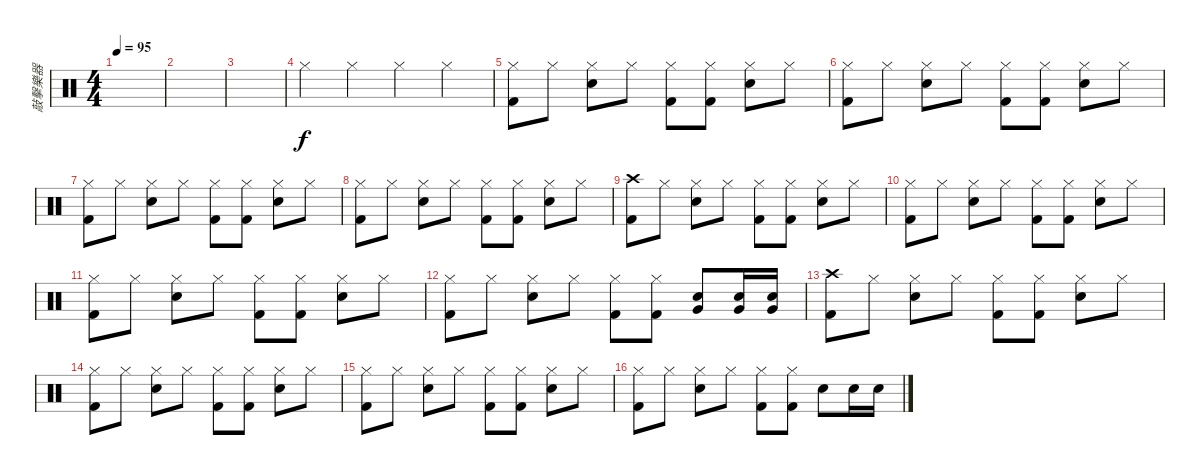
\track ("敲擊樂器" "敲擊樂器") {instrument percussion}
\staff {score}
\articulation defaults
\ts (4 4)
\tempo 95
\clef neutral
\ks c
|
|
|
"Hi-Hat (closed)".4 "Hi-Hat (closed)".4 "Hi-Hat (closed)".4 "Hi-Hat (closed)".4 |
("Hi-Hat (closed)" "Kick (hit) 2").8 "Hi-Hat (closed)".8 ("Hi-Hat (closed)" "Snare (hit) 2").8 "Hi-Hat (closed)".8 ("Hi-Hat (closed)" "Kick (hit) 2").8 ("Hi-Hat (closed)" "Kick (hit) 2").8 ("Hi-Hat (closed)" "Snare (hit) 2").8 "Hi-Hat (closed)".8 |
("Hi-Hat (closed)" "Kick (hit) 2").8 "Hi-Hat (closed)".8 ("Hi-Hat (closed)" "Snare (hit) 2").8 "Hi-Hat (closed)".8 ("Hi-Hat (closed)" "Kick (hit) 2").8 ("Hi-Hat (closed)" "Kick (hit) 2").8 ("Hi-Hat (closed)" "Snare (hit) 2").8 "Hi-Hat (closed)".8 |
("Hi-Hat (closed)" "Kick (hit) 2").8 "Hi-Hat (closed)".8 ("Hi-Hat (closed)" "Snare (hit) 2").8 "Hi-Hat (closed)".8 ("Hi-Hat (closed)" "Kick (hit) 2").8 ("Hi-Hat (closed)" "Kick (hit) 2").8 ("Hi-Hat (closed)" "Snare (hit) 2").8 "Hi-Hat (closed)".8 |
("Hi-Hat (closed)" "Kick (hit) 2").8 "Hi-Hat (closed)".8 ("Hi-Hat (closed)" "Snare (hit) 2").8 "Hi-Hat (closed)".8 ("Hi-Hat (closed)" "Kick (hit) 2").8 ("Hi-Hat (closed)" "Kick (hit) 2").8 ("Hi-Hat (closed)" "Snare (hit) 2").8 "Hi-Hat (closed)".8 |
("Crash high (hit)" "Kick (hit) 2").8 "Hi-Hat (closed)".8 ("Hi-Hat (closed)" "Snare (hit) 2").8 "Hi-Hat (closed)".8 ("Hi-Hat (closed)" "Kick (hit) 2").8 ("Hi-Hat (closed)" "Kick (hit) 2").8 ("Hi-Hat (closed)" "Snare (hit) 2").8 "Hi-Hat (closed)".8 |
("Hi-Hat (closed)" "Kick (hit) 2").8 "Hi-Hat (closed)".8 ("Hi-Hat (closed)" "Snare (hit) 2").8 "Hi-Hat (closed)".8 ("Hi-Hat (closed)" "Kick (hit) 2").8 ("Hi-Hat (closed)" "Kick (hit) 2").8 ("Hi-Hat (closed)" "Snare (hit) 2").8 "Hi-Hat (closed)".8 |
("Hi-Hat (closed)" "Kick (hit) 2").8 "Hi-Hat (closed)".8 ("Hi-Hat (closed)" "Snare (hit) 2").8 "Hi-Hat (closed)".8 ("Hi-Hat (closed)" "Kick (hit) 2").8 ("Hi-Hat (closed)" "Kick (hit) 2").8 ("Hi-Hat (closed)" "Snare (hit) 2").8 "Hi-Hat (closed)".8 |
("Hi-Hat (closed)" "Kick (hit) 2").8 "Hi-Hat (closed)".8 ("Hi-Hat (closed)" "Snare (hit) 2").8 "Hi-Hat (closed)".8 ("Hi-Hat (closed)" "Kick (hit) 2").8 ("Hi-Hat (closed)" "Kick (hit) 2").8 ("Snare (hit) 2" "Very Low Tom (hit)").8 ("Snare (hit) 2" "Very Low Tom (hit)").16 ("Snare (hit) 2" "Very Low Tom (hit)").16 |
("Crash high (hit)" "Kick (hit) 2").8 "Hi-Hat (closed)".8 ("Hi-Hat (closed)" "Snare (hit) 2").8 "Hi-Hat (closed)".8 ("Hi-Hat (closed)" "Kick (hit) 2").8 ("Hi-Hat (closed)" "Kick (hit) 2").8 ("Hi-Hat (closed)" "Snare (hit) 2").8 "Hi-Hat (closed)".8 |
("Hi-Hat (closed)" "Kick (hit) 2").8 "Hi-Hat (closed)".8 ("Hi-Hat (closed)" "Snare (hit) 2").8 "Hi-Hat (closed)".8 ("Hi-Hat (closed)" "Kick (hit) 2").8 ("Hi-Hat (closed)" "Kick (hit) 2").8 ("Hi-Hat (closed)" "Snare (hit) 2").8 "Hi-Hat (closed)".8 |
("Hi-Hat (closed)" "Kick (hit) 2").8 "Hi-Hat (closed)".8 ("Hi-Hat (closed)" "Snare (hit) 2").8 "Hi-Hat (closed)".8 ("Hi-Hat (closed)" "Kick (hit) 2").8 ("Hi-Hat (closed)" "Kick (hit) 2").8 ("Hi-Hat (closed)" "Snare (hit) 2").8 "Hi-Hat (closed)".8 |
("Hi-Hat (closed)" "Kick (hit) 2").8 "Hi-Hat (closed)".8 ("Hi-Hat (closed)" "Snare (hit) 2").8 "Hi-Hat (closed)".8 ("Hi-Hat (closed)" "Kick (hit) 2").8 ("Hi-Hat (closed)" "Kick (hit) 2").8 "Snare (hit) 2".8 "Snare (hit) 2".16 "Snare (hit) 2".16
